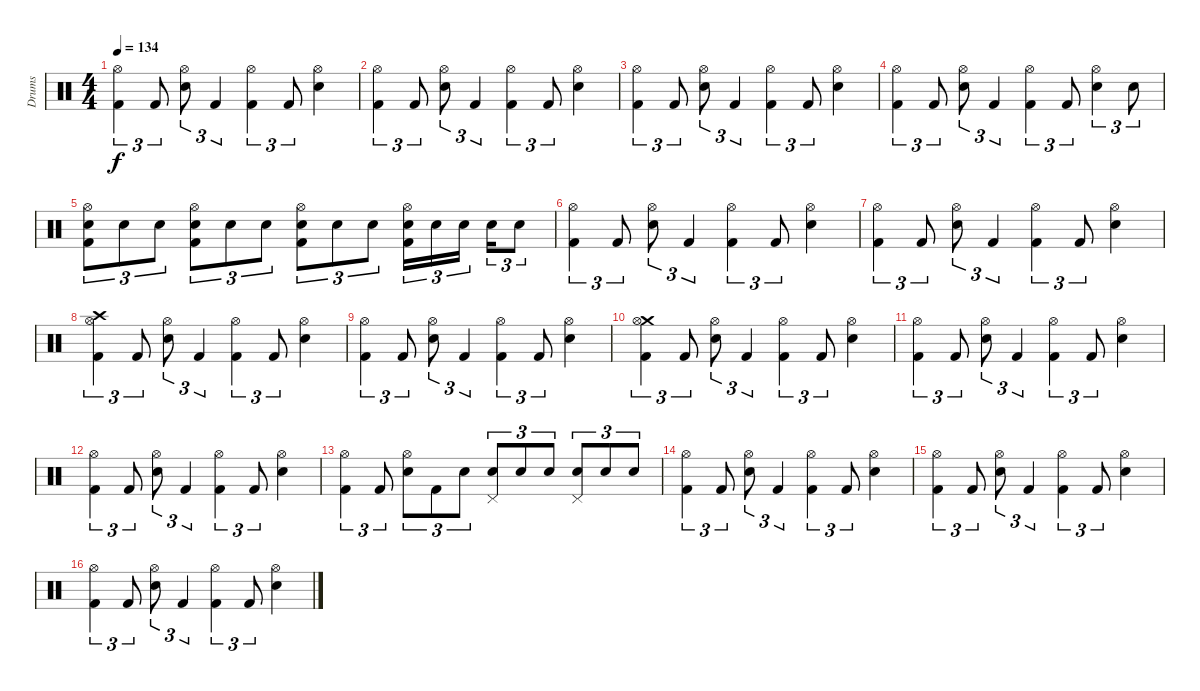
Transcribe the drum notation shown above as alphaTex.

\track ("Drums" "Drums") {instrument percussion}
\staff {score}
\articulation defaults
\ts (4 4)
\tempo 134
\clef neutral
\ks c
("Hi-Hat (open)" "Kick (hit) 2").4{tu (3 2) dy f} "Kick (hit) 2".8{tu (3 2)} ("Hi-Hat (open)" "Electric Snare (hit)").8{tu (3 2)} "Kick (hit) 2".4{tu (3 2)} ("Hi-Hat (open)" "Kick (hit) 2").4{tu (3 2)} "Kick (hit) 2".8{tu (3 2)} ("Hi-Hat (open)" "Electric Snare (hit)").4 |
("Hi-Hat (open)" "Kick (hit) 2").4{tu (3 2)} "Kick (hit) 2".8{tu (3 2)} ("Hi-Hat (open)" "Electric Snare (hit)").8{tu (3 2)} "Kick (hit) 2".4{tu (3 2)} ("Hi-Hat (open)" "Kick (hit) 2").4{tu (3 2)} "Kick (hit) 2".8{tu (3 2)} ("Hi-Hat (open)" "Electric Snare (hit)").4 |
("Hi-Hat (open)" "Kick (hit) 2").4{tu (3 2)} "Kick (hit) 2".8{tu (3 2)} ("Hi-Hat (open)" "Electric Snare (hit)").8{tu (3 2)} "Kick (hit) 2".4{tu (3 2)} ("Hi-Hat (open)" "Kick (hit) 2").4{tu (3 2)} "Kick (hit) 2".8{tu (3 2)} ("Hi-Hat (open)" "Electric Snare (hit)").4 |
("Hi-Hat (open)" "Kick (hit) 2").4{tu (3 2)} "Kick (hit) 2".8{tu (3 2)} ("Hi-Hat (open)" "Electric Snare (hit)").8{tu (3 2)} "Kick (hit) 2".4{tu (3 2)} ("Hi-Hat (open)" "Kick (hit) 2").4{tu (3 2)} "Kick (hit) 2".8{tu (3 2)} ("Hi-Hat (open)" "Electric Snare (hit)").4{tu (3 2)} "Electric Snare (hit)".8{tu (3 2)} |
("Hi-Hat (open)" "Electric Snare (hit)" "Kick (hit) 2").8{tu (3 2)} "Electric Snare (hit)".8{tu (3 2)} "Electric Snare (hit)".8{tu (3 2)} ("Hi-Hat (open)" "Electric Snare (hit)" "Kick (hit) 2").8{tu (3 2)} "Electric Snare (hit)".8{tu (3 2)} "Electric Snare (hit)".8{tu (3 2)} ("Hi-Hat (open)" "Electric Snare (hit)" "Kick (hit) 2").8{tu (3 2)} "Electric Snare (hit)".8{tu (3 2)} "Electric Snare (hit)".8{tu (3 2)} ("Hi-Hat (open)" "Electric Snare (hit)" "Kick (hit) 2").16{tu (3 2)} "Electric Snare (hit)".16{tu (3 2)} "Electric Snare (hit)".16{tu (3 2)} "Electric Snare (hit)".16{tu (3 2)} "Electric Snare (hit)".8{tu (3 2)} |
("Hi-Hat (open)" "Kick (hit) 2").4{tu (3 2)} "Kick (hit) 2".8{tu (3 2)} ("Hi-Hat (open)" "Electric Snare (hit)").8{tu (3 2)} "Kick (hit) 2".4{tu (3 2)} ("Hi-Hat (open)" "Kick (hit) 2").4{tu (3 2)} "Kick (hit) 2".8{tu (3 2)} ("Hi-Hat (open)" "Electric Snare (hit)").4 |
("Hi-Hat (open)" "Kick (hit) 2").4{tu (3 2)} "Kick (hit) 2".8{tu (3 2)} ("Hi-Hat (open)" "Electric Snare (hit)").8{tu (3 2)} "Kick (hit) 2".4{tu (3 2)} ("Hi-Hat (open)" "Kick (hit) 2").4{tu (3 2)} "Kick (hit) 2".8{tu (3 2)} ("Hi-Hat (open)" "Electric Snare (hit)").4 |
("Crash high (hit)" "Hi-Hat (open)" "Kick (hit) 2").4{tu (3 2)} "Kick (hit) 2".8{tu (3 2)} ("Hi-Hat (open)" "Electric Snare (hit)").8{tu (3 2)} "Kick (hit) 2".4{tu (3 2)} ("Hi-Hat (open)" "Kick (hit) 2").4{tu (3 2)} "Kick (hit) 2".8{tu (3 2)} ("Hi-Hat (open)" "Electric Snare (hit)").4 |
("Hi-Hat (open)" "Kick (hit) 2").4{tu (3 2)} "Kick (hit) 2".8{tu (3 2)} ("Hi-Hat (open)" "Electric Snare (hit)").8{tu (3 2)} "Kick (hit) 2".4{tu (3 2)} ("Hi-Hat (open)" "Kick (hit) 2").4{tu (3 2)} "Kick (hit) 2".8{tu (3 2)} ("Hi-Hat (open)" "Electric Snare (hit)").4 |
("Crash medium (hit)" "Hi-Hat (open)" "Kick (hit) 2").4{tu (3 2)} "Kick (hit) 2".8{tu (3 2)} ("Hi-Hat (open)" "Electric Snare (hit)").8{tu (3 2)} "Kick (hit) 2".4{tu (3 2)} ("Hi-Hat (open)" "Kick (hit) 2").4{tu (3 2)} "Kick (hit) 2".8{tu (3 2)} ("Hi-Hat (open)" "Electric Snare (hit)").4 |
("Hi-Hat (open)" "Kick (hit) 2").4{tu (3 2)} "Kick (hit) 2".8{tu (3 2)} ("Hi-Hat (open)" "Electric Snare (hit)").8{tu (3 2)} "Kick (hit) 2".4{tu (3 2)} ("Hi-Hat (open)" "Kick (hit) 2").4{tu (3 2)} "Kick (hit) 2".8{tu (3 2)} ("Hi-Hat (open)" "Electric Snare (hit)").4 |
("Hi-Hat (open)" "Kick (hit) 2").4{tu (3 2)} "Kick (hit) 2".8{tu (3 2)} ("Hi-Hat (open)" "Electric Snare (hit)").8{tu (3 2)} "Kick (hit) 2".4{tu (3 2)} ("Hi-Hat (open)" "Kick (hit) 2").4{tu (3 2)} "Kick (hit) 2".8{tu (3 2)} ("Hi-Hat (open)" "Electric Snare (hit)").4 |
("Hi-Hat (open)" "Kick (hit) 2").4{tu (3 2)} "Kick (hit) 2".8{tu (3 2)} ("Hi-Hat (open)" "Electric Snare (hit)").8{tu (3 2)} "Kick (hit) 2".8{tu (3 2)} "Electric Snare (hit)".8{tu (3 2)} ("Pedal Hi-Hat (hit)" "Electric Snare (hit)").8{tu (3 2)} "Electric Snare (hit)".8{tu (3 2)} "Electric Snare (hit)".8{tu (3 2)} ("Pedal Hi-Hat (hit)" "Electric Snare (hit)").8{tu (3 2)} "Electric Snare (hit)".8{tu (3 2)} "Electric Snare (hit)".8{tu (3 2)} |
("Hi-Hat (open)" "Kick (hit) 2").4{tu (3 2)} "Kick (hit) 2".8{tu (3 2)} ("Hi-Hat (open)" "Electric Snare (hit)").8{tu (3 2)} "Kick (hit) 2".4{tu (3 2)} ("Hi-Hat (open)" "Kick (hit) 2").4{tu (3 2)} "Kick (hit) 2".8{tu (3 2)} ("Hi-Hat (open)" "Electric Snare (hit)").4 |
("Hi-Hat (open)" "Kick (hit) 2").4{tu (3 2)} "Kick (hit) 2".8{tu (3 2)} ("Hi-Hat (open)" "Electric Snare (hit)").8{tu (3 2)} "Kick (hit) 2".4{tu (3 2)} ("Hi-Hat (open)" "Kick (hit) 2").4{tu (3 2)} "Kick (hit) 2".8{tu (3 2)} ("Hi-Hat (open)" "Electric Snare (hit)").4 |
("Hi-Hat (open)" "Kick (hit) 2").4{tu (3 2)} "Kick (hit) 2".8{tu (3 2)} ("Hi-Hat (open)" "Electric Snare (hit)").8{tu (3 2)} "Kick (hit) 2".4{tu (3 2)} ("Hi-Hat (open)" "Kick (hit) 2").4{tu (3 2)} "Kick (hit) 2".8{tu (3 2)} ("Hi-Hat (open)" "Electric Snare (hit)").4
